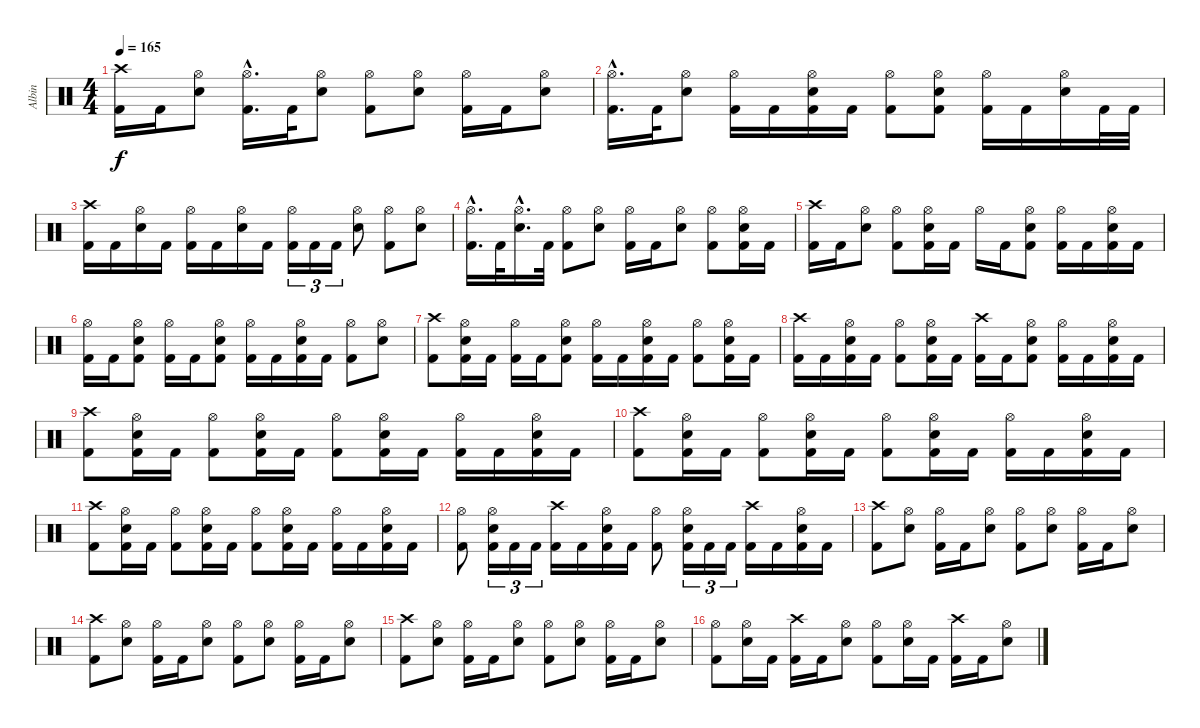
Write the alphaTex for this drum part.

\track ("Albin" "Albin") {instrument percussion}
\staff {score}
\articulation defaults
\ts (4 4)
\tempo 165
\clef neutral
\ks c
("Kick (hit) 2" "Crash high (hit)").16{dy f} "Kick (hit) 2".16 ("Electric Snare (hit)" "Hi-Hat (open)").8 ("Kick (hit) 2"{hac} "Hi-Hat (open)"{hac}).16{d} "Kick (hit) 2".32 ("Electric Snare (hit)" "Hi-Hat (open)").8 ("Kick (hit) 2" "Hi-Hat (open)").8 ("Electric Snare (hit)" "Hi-Hat (open)").8 ("Kick (hit) 2" "Hi-Hat (open)").16 "Kick (hit) 2".16 ("Electric Snare (hit)" "Hi-Hat (open)").8 |
("Kick (hit) 2"{hac} "Hi-Hat (open)"{hac}).16{d} "Kick (hit) 2".32 ("Electric Snare (hit)" "Hi-Hat (open)").8 ("Kick (hit) 2" "Hi-Hat (open)").16 "Kick (hit) 2".16 ("Kick (hit) 2" "Electric Snare (hit)" "Hi-Hat (open)").16 "Kick (hit) 2".16 ("Kick (hit) 2" "Hi-Hat (open)").8 ("Kick (hit) 2" "Electric Snare (hit)" "Hi-Hat (open)").8 ("Kick (hit) 2" "Hi-Hat (open)").16 "Kick (hit) 2".16 ("Electric Snare (hit)" "Hi-Hat (open)").16 "Kick (hit) 2".32 "Kick (hit) 2".32 |
("Kick (hit) 2" "Crash high (hit)").16 "Kick (hit) 2".16 ("Electric Snare (hit)" "Hi-Hat (open)").16 "Kick (hit) 2".16 ("Kick (hit) 2" "Hi-Hat (open)").16 "Kick (hit) 2".16 ("Electric Snare (hit)" "Hi-Hat (open)").16 "Kick (hit) 2".16 ("Kick (hit) 2" "Hi-Hat (open)").16{tu (3 2)} "Kick (hit) 2".16{tu (3 2)} "Kick (hit) 2".16{tu (3 2)} ("Electric Snare (hit)" "Hi-Hat (open)").8 ("Kick (hit) 2" "Hi-Hat (open)").8 ("Electric Snare (hit)" "Hi-Hat (open)").8 |
("Kick (hit) 2"{hac} "Hi-Hat (open)"{hac}).16{d} "Kick (hit) 2".32 ("Electric Snare (hit)"{hac} "Hi-Hat (open)"{hac}).16{d} "Kick (hit) 2".32 ("Kick (hit) 2" "Hi-Hat (open)").8 ("Electric Snare (hit)" "Hi-Hat (open)").8 ("Kick (hit) 2" "Hi-Hat (open)").16 "Kick (hit) 2".16 ("Electric Snare (hit)" "Hi-Hat (open)").8 ("Kick (hit) 2" "Hi-Hat (open)").8 ("Kick (hit) 2" "Electric Snare (hit)" "Hi-Hat (open)").16 "Kick (hit) 2".16 |
("Kick (hit) 2" "Crash high (hit)").16 "Kick (hit) 2".16 ("Electric Snare (hit)" "Hi-Hat (open)").8 ("Kick (hit) 2" "Hi-Hat (open)").8 ("Kick (hit) 2" "Electric Snare (hit)" "Hi-Hat (open)").16 "Kick (hit) 2".16 "Hi-Hat (open)".16 "Kick (hit) 2".16 ("Kick (hit) 2" "Electric Snare (hit)" "Hi-Hat (open)").8 ("Kick (hit) 2" "Hi-Hat (open)").16 "Kick (hit) 2".16 ("Kick (hit) 2" "Electric Snare (hit)" "Hi-Hat (open)").16 "Kick (hit) 2".16 |
("Kick (hit) 2" "Hi-Hat (open)").16 "Kick (hit) 2".16 ("Kick (hit) 2" "Electric Snare (hit)" "Hi-Hat (open)").8 ("Kick (hit) 2" "Hi-Hat (open)").16 "Kick (hit) 2".16 ("Kick (hit) 2" "Electric Snare (hit)" "Hi-Hat (open)").8 ("Kick (hit) 2" "Hi-Hat (open)").16 "Kick (hit) 2".16 ("Kick (hit) 2" "Electric Snare (hit)" "Hi-Hat (open)").16 "Kick (hit) 2".16 ("Kick (hit) 2" "Hi-Hat (open)").8 ("Electric Snare (hit)" "Hi-Hat (open)").8 |
("Kick (hit) 2" "Crash high (hit)").8 ("Kick (hit) 2" "Electric Snare (hit)" "Hi-Hat (open)").16 "Kick (hit) 2".16 ("Kick (hit) 2" "Hi-Hat (open)").16 "Kick (hit) 2".16 ("Kick (hit) 2" "Electric Snare (hit)" "Hi-Hat (open)").8 ("Kick (hit) 2" "Hi-Hat (open)").16 "Kick (hit) 2".16 ("Kick (hit) 2" "Electric Snare (hit)" "Hi-Hat (open)").16 "Kick (hit) 2".16 ("Kick (hit) 2" "Hi-Hat (open)").8 ("Kick (hit) 2" "Electric Snare (hit)" "Hi-Hat (open)").16 "Kick (hit) 2".16 |
("Kick (hit) 2" "Crash high (hit)").16 "Kick (hit) 2".16 ("Kick (hit) 2" "Electric Snare (hit)" "Hi-Hat (open)").16 "Kick (hit) 2".16 ("Kick (hit) 2" "Hi-Hat (open)").8 ("Kick (hit) 2" "Electric Snare (hit)" "Hi-Hat (open)").16 "Kick (hit) 2".16 ("Kick (hit) 2" "Crash high (hit)").16 "Kick (hit) 2".16 ("Kick (hit) 2" "Electric Snare (hit)" "Hi-Hat (open)").8 ("Kick (hit) 2" "Hi-Hat (open)").16 "Kick (hit) 2".16 ("Kick (hit) 2" "Electric Snare (hit)" "Hi-Hat (open)").16 "Kick (hit) 2".16 |
("Kick (hit) 2" "Crash high (hit)").8 ("Kick (hit) 2" "Electric Snare (hit)" "Hi-Hat (open)").16 "Kick (hit) 2".16 ("Kick (hit) 2" "Hi-Hat (open)").8 ("Kick (hit) 2" "Electric Snare (hit)" "Hi-Hat (open)").16 "Kick (hit) 2".16 ("Kick (hit) 2" "Hi-Hat (open)").8 ("Kick (hit) 2" "Electric Snare (hit)" "Hi-Hat (open)").16 "Kick (hit) 2".16 ("Kick (hit) 2" "Hi-Hat (open)").16 "Kick (hit) 2".16 ("Kick (hit) 2" "Electric Snare (hit)" "Hi-Hat (open)").16 "Kick (hit) 2".16 |
("Kick (hit) 2" "Crash high (hit)").8 ("Kick (hit) 2" "Electric Snare (hit)" "Hi-Hat (open)").16 "Kick (hit) 2".16 ("Kick (hit) 2" "Hi-Hat (open)").8 ("Kick (hit) 2" "Electric Snare (hit)" "Hi-Hat (open)").16 "Kick (hit) 2".16 ("Kick (hit) 2" "Hi-Hat (open)").8 ("Kick (hit) 2" "Electric Snare (hit)" "Hi-Hat (open)").16 "Kick (hit) 2".16 ("Kick (hit) 2" "Hi-Hat (open)").16 "Kick (hit) 2".16 ("Kick (hit) 2" "Electric Snare (hit)" "Hi-Hat (open)").16 "Kick (hit) 2".16 |
("Kick (hit) 2" "Crash high (hit)").8 ("Kick (hit) 2" "Electric Snare (hit)" "Hi-Hat (open)").16 "Kick (hit) 2".16 ("Kick (hit) 2" "Hi-Hat (open)").8 ("Kick (hit) 2" "Electric Snare (hit)" "Hi-Hat (open)").16 "Kick (hit) 2".16 ("Kick (hit) 2" "Hi-Hat (open)").8 ("Kick (hit) 2" "Electric Snare (hit)" "Hi-Hat (open)").16 "Kick (hit) 2".16 ("Kick (hit) 2" "Hi-Hat (open)").16 "Kick (hit) 2".16 ("Kick (hit) 2" "Electric Snare (hit)" "Hi-Hat (open)").16 "Kick (hit) 2".16 |
("Kick (hit) 2" "Hi-Hat (open)").8 ("Kick (hit) 2" "Electric Snare (hit)" "Hi-Hat (open)").16{tu (3 2)} "Kick (hit) 2".16{tu (3 2)} "Kick (hit) 2".16{tu (3 2)} ("Kick (hit) 2" "Crash high (hit)").16 "Kick (hit) 2".16 ("Kick (hit) 2" "Electric Snare (hit)" "Hi-Hat (open)").16 "Kick (hit) 2".16 ("Kick (hit) 2" "Hi-Hat (open)").8 ("Kick (hit) 2" "Electric Snare (hit)" "Hi-Hat (open)").16{tu (3 2)} "Kick (hit) 2".16{tu (3 2)} "Kick (hit) 2".16{tu (3 2)} ("Kick (hit) 2" "Crash high (hit)").16 "Kick (hit) 2".16 ("Kick (hit) 2" "Electric Snare (hit)" "Hi-Hat (open)").16 "Kick (hit) 2".16 |
("Kick (hit) 2" "Crash high (hit)").8 ("Electric Snare (hit)" "Hi-Hat (open)").8 ("Kick (hit) 2" "Hi-Hat (open)").16 "Kick (hit) 2".16 ("Electric Snare (hit)" "Hi-Hat (open)").8 ("Kick (hit) 2" "Hi-Hat (open)").8 ("Electric Snare (hit)" "Hi-Hat (open)").8 ("Kick (hit) 2" "Hi-Hat (open)").16 "Kick (hit) 2".16 ("Electric Snare (hit)" "Hi-Hat (open)").8 |
("Kick (hit) 2" "Crash high (hit)").8 ("Electric Snare (hit)" "Hi-Hat (open)").8 ("Kick (hit) 2" "Hi-Hat (open)").16 "Kick (hit) 2".16 ("Electric Snare (hit)" "Hi-Hat (open)").8 ("Kick (hit) 2" "Hi-Hat (open)").8 ("Electric Snare (hit)" "Hi-Hat (open)").8 ("Kick (hit) 2" "Hi-Hat (open)").16 "Kick (hit) 2".16 ("Electric Snare (hit)" "Hi-Hat (open)").8 |
("Kick (hit) 2" "Crash high (hit)").8 ("Electric Snare (hit)" "Hi-Hat (open)").8 ("Kick (hit) 2" "Hi-Hat (open)").16 "Kick (hit) 2".16 ("Electric Snare (hit)" "Hi-Hat (open)").8 ("Kick (hit) 2" "Hi-Hat (open)").8 ("Electric Snare (hit)" "Hi-Hat (open)").8 ("Kick (hit) 2" "Hi-Hat (open)").16 "Kick (hit) 2".16 ("Electric Snare (hit)" "Hi-Hat (open)").8 |
("Kick (hit) 2" "Hi-Hat (open)").8 ("Electric Snare (hit)" "Hi-Hat (open)").16 "Kick (hit) 2".16 ("Kick (hit) 2" "Crash high (hit)").16 "Kick (hit) 2".16 ("Electric Snare (hit)" "Hi-Hat (open)").8 ("Kick (hit) 2" "Hi-Hat (open)").8 ("Electric Snare (hit)" "Hi-Hat (open)").16 "Kick (hit) 2".16 ("Kick (hit) 2" "Crash high (hit)").16 "Kick (hit) 2".16 ("Electric Snare (hit)" "Hi-Hat (open)").8
